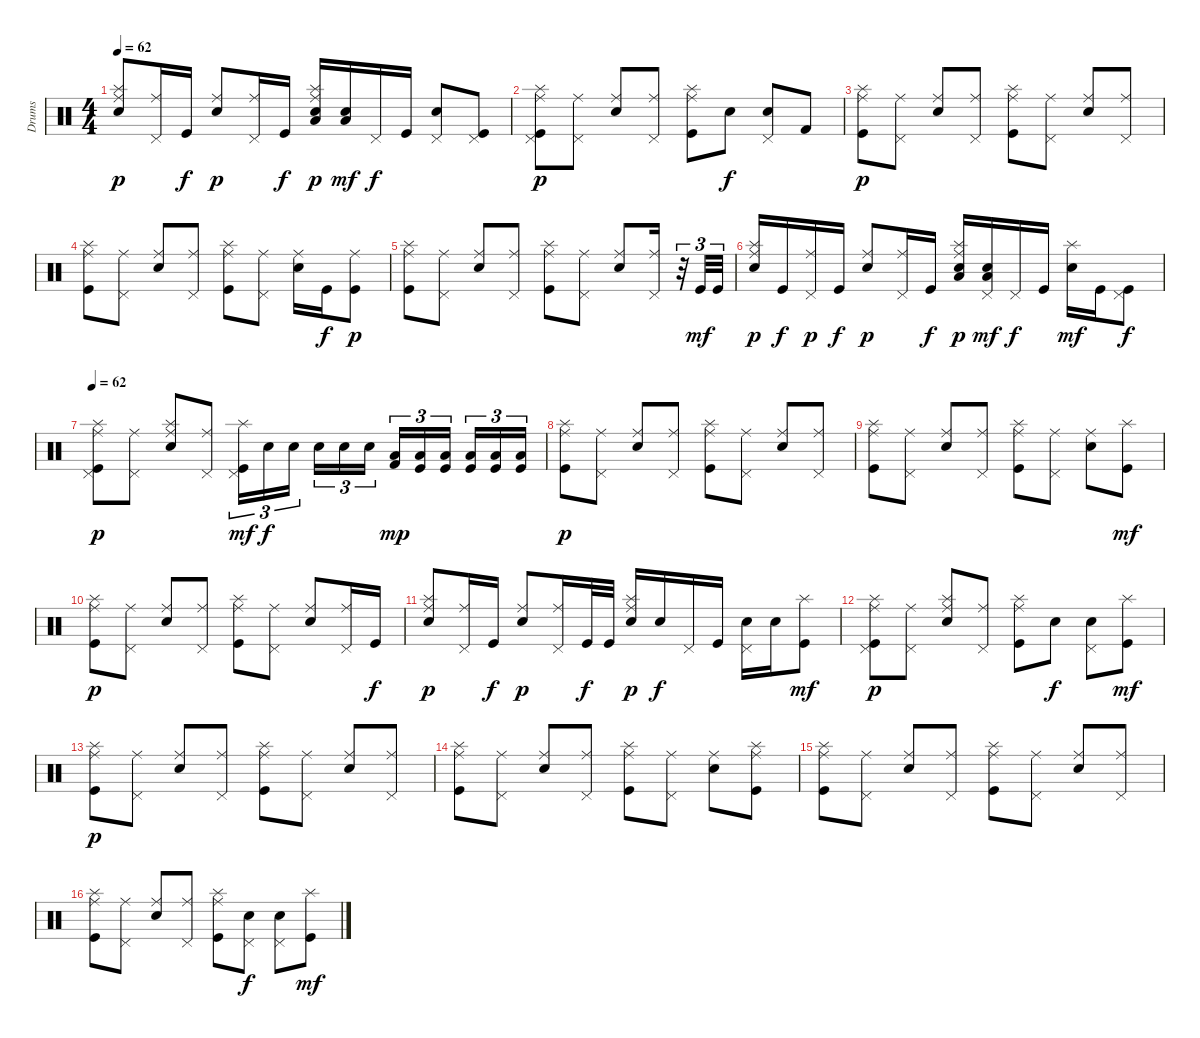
\track ("Drums" "Drums") {instrument percussion}
\staff {score}
\articulation defaults
\ts (4 4)
\tempo 62
\clef neutral
\ks c
("Electric Snare (hit)" "Splash (hit)" "Ride (middle)").8{dy p} ("Pedal Hi-Hat (hit)" "Ride (middle)").16 "Kick (hit)".16{dy f} ("Electric Snare (hit)" "Ride (middle)").8{dy p} ("Pedal Hi-Hat (hit)" "Ride (middle)").16 "Kick (hit)".16{dy f} ("Electric Snare (hit)" "Splash (hit)" "Low Floor Tom (hit)" "Ride (middle)").16{dy p} ("Electric Snare (hit)" "Low Floor Tom (hit)").16{dy mf} "Pedal Hi-Hat (hit)".16{dy f} "Kick (hit)".16 ("Electric Snare (hit)" "Pedal Hi-Hat (hit)").8 ("Pedal Hi-Hat (hit)" "Kick (hit)").8 |
("Pedal Hi-Hat (hit)" "Kick (hit)" "Splash (hit)" "Ride (middle)").8{dy p} ("Pedal Hi-Hat (hit)" "Ride (middle)").8 ("Electric Snare (hit)" "Ride (middle)").8 ("Pedal Hi-Hat (hit)" "Ride (middle)").8 ("Kick (hit)" "Splash (hit)" "Ride (middle)").8 "Electric Snare (hit)".8{dy f} ("Electric Snare (hit)" "Pedal Hi-Hat (hit)").8 "Kick (hit) 2".8 |
("Kick (hit)" "Splash (hit)" "Ride (middle)").8{dy p} ("Pedal Hi-Hat (hit)" "Ride (middle)").8 ("Electric Snare (hit)" "Ride (middle)").8 ("Pedal Hi-Hat (hit)" "Ride (middle)").8 ("Kick (hit)" "Splash (hit)" "Ride (middle)").8 ("Pedal Hi-Hat (hit)" "Ride (middle)").8 ("Electric Snare (hit)" "Ride (middle)").8 ("Pedal Hi-Hat (hit)" "Ride (middle)").8 |
("Kick (hit)" "Splash (hit)" "Ride (middle)").8 ("Pedal Hi-Hat (hit)" "Ride (middle)").8 ("Electric Snare (hit)" "Ride (middle)").8 ("Pedal Hi-Hat (hit)" "Ride (middle)").8 ("Kick (hit)" "Splash (hit)" "Ride (middle)").8 ("Pedal Hi-Hat (hit)" "Ride (middle)").8 ("Electric Snare (hit)" "Ride (middle)").16 "Kick (hit)".16{dy f} ("Kick (hit)" "Ride (middle)").8{dy p} |
("Kick (hit)" "Splash (hit)" "Ride (middle)").8 ("Pedal Hi-Hat (hit)" "Ride (middle)").8 ("Electric Snare (hit)" "Ride (middle)").8 ("Pedal Hi-Hat (hit)" "Ride (middle)").8 ("Kick (hit)" "Splash (hit)" "Ride (middle)").8 ("Pedal Hi-Hat (hit)" "Ride (middle)").8 ("Electric Snare (hit)" "Ride (middle)").8 ("Pedal Hi-Hat (hit)" "Ride (middle)").16 r.32{tu (3 2)} "Kick (hit)".32{tu (3 2) dy mf} "Kick (hit)".32{tu (3 2)} |
("Electric Snare (hit)" "Splash (hit)" "Ride (middle)").16{dy p} "Kick (hit)".16{dy f} ("Pedal Hi-Hat (hit)" "Ride (middle)").16{dy p} "Kick (hit)".16{dy f} ("Electric Snare (hit)" "Ride (middle)").8{dy p} ("Pedal Hi-Hat (hit)" "Ride (middle)").16 "Kick (hit)".16{dy f} ("Electric Snare (hit)" "Splash (hit)" "Low Floor Tom (hit)" "Ride (middle)").16{dy p} ("Electric Snare (hit)" "Pedal Hi-Hat (hit)" "Low Floor Tom (hit)").16{dy mf} "Pedal Hi-Hat (hit)".16{dy f} "Kick (hit)".16 ("Electric Snare (hit)" "Splash (hit)").16{dy mf} "Kick (hit)".16 ("Pedal Hi-Hat (hit)" "Kick (hit)").8{dy f} |
\tempo 62
("Pedal Hi-Hat (hit)" "Kick (hit)" "Splash (hit)" "Ride (middle)").8{dy p} ("Pedal Hi-Hat (hit)" "Ride (middle)").8 ("Electric Snare (hit)" "Splash (hit)" "Ride (middle)").8 ("Pedal Hi-Hat (hit)" "Ride (middle)").8 ("Kick (hit)" "Pedal Hi-Hat (hit)" "Splash (hit)").16{tu (3 2) dy mf} "Electric Snare (hit)".16{tu (3 2) dy f} "Electric Snare (hit)".16{tu (3 2)} "Electric Snare (hit)".16{tu (3 2)} "Electric Snare (hit)".16{tu (3 2)} "Electric Snare (hit)".16{tu (3 2)} ("Kick (hit) 2" "Low Floor Tom (hit)").16{tu (3 2) dy mp} ("Kick (hit)" "Low Floor Tom (hit)").16{tu (3 2)} ("Kick (hit)" "Low Floor Tom (hit)").16{tu (3 2)} ("Kick (hit)" "Low Floor Tom (hit)").16{tu (3 2)} ("Kick (hit)" "Low Floor Tom (hit)").16{tu (3 2)} ("Kick (hit)" "Low Floor Tom (hit)").16{tu (3 2)} |
("Kick (hit)" "Splash (hit)" "Ride (middle)").8{dy p} ("Pedal Hi-Hat (hit)" "Ride (middle)").8 ("Electric Snare (hit)" "Ride (middle)").8 ("Pedal Hi-Hat (hit)" "Ride (middle)").8 ("Kick (hit)" "Splash (hit)" "Ride (middle)").8 ("Pedal Hi-Hat (hit)" "Ride (middle)").8 ("Electric Snare (hit)" "Ride (middle)").8 ("Pedal Hi-Hat (hit)" "Ride (middle)").8 |
("Kick (hit)" "Splash (hit)" "Ride (middle)").8 ("Pedal Hi-Hat (hit)" "Ride (middle)").8 ("Electric Snare (hit)" "Ride (middle)").8 ("Pedal Hi-Hat (hit)" "Ride (middle)").8 ("Kick (hit)" "Splash (hit)" "Ride (middle)").8 ("Pedal Hi-Hat (hit)" "Ride (middle)").8 ("Electric Snare (hit)" "Ride (middle)").8 ("Kick (hit)" "Splash (hit)").8{dy mf} |
("Kick (hit)" "Splash (hit)" "Ride (middle)").8{dy p} ("Pedal Hi-Hat (hit)" "Ride (middle)").8 ("Electric Snare (hit)" "Ride (middle)").8 ("Pedal Hi-Hat (hit)" "Ride (middle)").8 ("Kick (hit)" "Splash (hit)" "Ride (middle)").8 ("Pedal Hi-Hat (hit)" "Ride (middle)").8 ("Electric Snare (hit)" "Ride (middle)").8 ("Pedal Hi-Hat (hit)" "Ride (middle)").16 "Kick (hit)".16{dy f} |
("Electric Snare (hit)" "Splash (hit)" "Ride (middle)").8{dy p} ("Pedal Hi-Hat (hit)" "Ride (middle)").16 "Kick (hit)".16{dy f} ("Electric Snare (hit)" "Ride (middle)").8{dy p} ("Pedal Hi-Hat (hit)" "Ride (middle)").16 "Kick (hit)".32{dy f} "Kick (hit)".32 ("Electric Snare (hit)" "Splash (hit)" "Ride (middle)").16{dy p} "Electric Snare (hit)".16{dy f} "Pedal Hi-Hat (hit)".16 "Kick (hit)".16 ("Electric Snare (hit)" "Pedal Hi-Hat (hit)").16 "Electric Snare (hit)".16 ("Kick (hit)" "Splash (hit)").8{dy mf} |
("Pedal Hi-Hat (hit)" "Kick (hit)" "Splash (hit)" "Ride (middle)").8{dy p} ("Pedal Hi-Hat (hit)" "Ride (middle)").8 ("Electric Snare (hit)" "Splash (hit)" "Ride (middle)").8 ("Pedal Hi-Hat (hit)" "Ride (middle)").8 ("Kick (hit)" "Splash (hit)" "Ride (middle)").8 "Electric Snare (hit)".8{dy f} ("Electric Snare (hit)" "Pedal Hi-Hat (hit)").8 ("Kick (hit)" "Splash (hit)").8{dy mf} |
("Kick (hit)" "Splash (hit)" "Ride (middle)").8{dy p} ("Pedal Hi-Hat (hit)" "Ride (middle)").8 ("Electric Snare (hit)" "Ride (middle)").8 ("Pedal Hi-Hat (hit)" "Ride (middle)").8 ("Kick (hit)" "Splash (hit)" "Ride (middle)").8 ("Pedal Hi-Hat (hit)" "Ride (middle)").8 ("Electric Snare (hit)" "Ride (middle)").8 ("Pedal Hi-Hat (hit)" "Ride (middle)").8 |
("Kick (hit)" "Splash (hit)" "Ride (middle)").8 ("Pedal Hi-Hat (hit)" "Ride (middle)").8 ("Electric Snare (hit)" "Ride (middle)").8 ("Pedal Hi-Hat (hit)" "Ride (middle)").8 ("Kick (hit)" "Splash (hit)" "Ride (middle)").8 ("Pedal Hi-Hat (hit)" "Ride (middle)").8 ("Electric Snare (hit)" "Ride (middle)").8 ("Splash (hit)" "Kick (hit)" "Ride (middle)").8 |
("Kick (hit)" "Splash (hit)" "Ride (middle)").8 ("Pedal Hi-Hat (hit)" "Ride (middle)").8 ("Electric Snare (hit)" "Ride (middle)").8 ("Pedal Hi-Hat (hit)" "Ride (middle)").8 ("Kick (hit)" "Splash (hit)" "Ride (middle)").8 ("Pedal Hi-Hat (hit)" "Ride (middle)").8 ("Electric Snare (hit)" "Ride (middle)").8 ("Pedal Hi-Hat (hit)" "Ride (middle)").8 |
("Kick (hit)" "Splash (hit)" "Ride (middle)").8 ("Pedal Hi-Hat (hit)" "Ride (middle)").8 ("Electric Snare (hit)" "Ride (middle)").8 ("Pedal Hi-Hat (hit)" "Ride (middle)").8 ("Kick (hit)" "Splash (hit)" "Ride (middle)").8 ("Electric Snare (hit)" "Pedal Hi-Hat (hit)").8{dy f} ("Electric Snare (hit)" "Pedal Hi-Hat (hit)").8 ("Splash (hit)" "Kick (hit)").8{dy mf}
